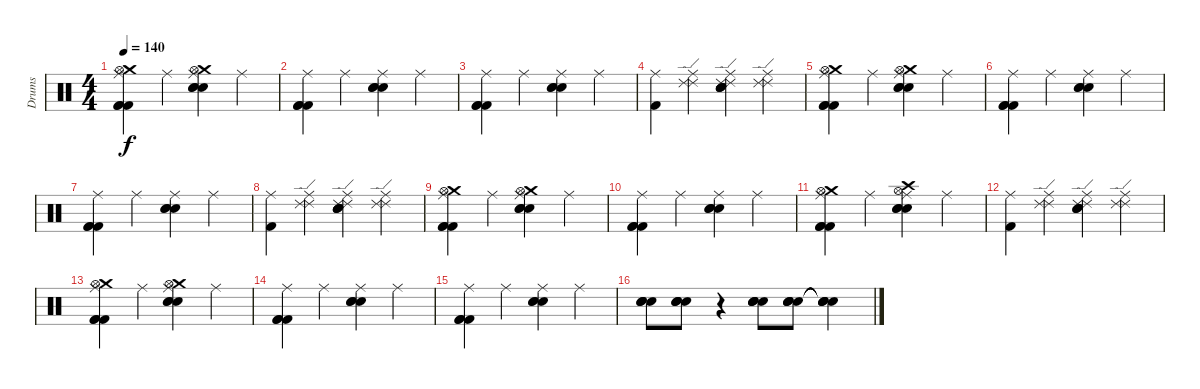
\track ("Drums" "Drums") {instrument percussion}
\staff {score}
\articulation defaults
\ts (4 4)
\tempo 140
\clef neutral
\ks c
("Ride (middle)" "Kick (hit) 2" "Kick (hit) 2" "Kick (hit) 2" "Crash medium (hit)" "Hi-Hat (open)").4{dy f} "Ride (middle)".4 ("Ride (middle)" "Electric Snare (hit)" "Electric Snare (hit)" "Electric Snare (hit)" "Crash medium (hit)" "Hi-Hat (open)").4 "Ride (middle)".4 |
("Ride (middle)" "Kick (hit) 2" "Kick (hit) 2" "Kick (hit) 2").4 "Ride (middle)".4 ("Ride (middle)" "Electric Snare (hit)" "Electric Snare (hit)" "Electric Snare (hit)").4 "Ride (middle)".4 |
("Ride (middle)" "Kick (hit) 2" "Kick (hit) 2" "Kick (hit) 2").4 "Ride (middle)".4 ("Ride (middle)" "Electric Snare (hit)" "Electric Snare (hit)" "Electric Snare (hit)").4 "Ride (middle)".4 |
("Ride (middle)" "Kick (hit) 2").4 ("Ride (middle)" "Ride (edge) 2" "Ride (edge) 2").4 ("Ride (middle)" "Electric Snare (hit)" "Electric Snare (hit)" "Electric Snare (hit)" "Ride (edge) 2" "Ride (edge) 2").4 ("Ride (middle)" "Ride (edge) 2" "Ride (edge) 2").4 |
("Ride (middle)" "Kick (hit) 2" "Kick (hit) 2" "Kick (hit) 2" "Crash medium (hit)" "Hi-Hat (open)").4 "Ride (middle)".4 ("Ride (middle)" "Electric Snare (hit)" "Electric Snare (hit)" "Electric Snare (hit)" "Crash medium (hit)" "Hi-Hat (open)").4 "Ride (middle)".4 |
("Ride (middle)" "Kick (hit) 2" "Kick (hit) 2" "Kick (hit) 2").4 "Ride (middle)".4 ("Ride (middle)" "Electric Snare (hit)" "Electric Snare (hit)" "Electric Snare (hit)").4 "Ride (middle)".4 |
("Ride (middle)" "Kick (hit) 2" "Kick (hit) 2" "Kick (hit) 2").4 "Ride (middle)".4 ("Ride (middle)" "Electric Snare (hit)" "Electric Snare (hit)" "Electric Snare (hit)").4 "Ride (middle)".4 |
("Ride (middle)" "Kick (hit) 2").4 ("Ride (middle)" "Ride (edge) 2" "Ride (edge) 2").4 ("Ride (middle)" "Electric Snare (hit)" "Electric Snare (hit)" "Electric Snare (hit)" "Ride (edge) 2" "Ride (edge) 2").4 ("Ride (middle)" "Ride (edge) 2" "Ride (edge) 2").4 |
("Ride (middle)" "Kick (hit) 2" "Kick (hit) 2" "Kick (hit) 2" "Crash medium (hit)" "Hi-Hat (open)").4 "Ride (middle)".4 ("Ride (middle)" "Electric Snare (hit)" "Electric Snare (hit)" "Electric Snare (hit)" "Crash medium (hit)" "Hi-Hat (open)").4 "Ride (middle)".4 |
("Ride (middle)" "Kick (hit) 2" "Kick (hit) 2" "Kick (hit) 2").4 "Ride (middle)".4 ("Ride (middle)" "Electric Snare (hit)" "Electric Snare (hit)" "Electric Snare (hit)").4 "Ride (middle)".4 |
("Ride (middle)" "Kick (hit) 2" "Kick (hit) 2" "Kick (hit) 2" "Crash medium (hit)" "Hi-Hat (open)").4 "Ride (middle)".4 ("Ride (middle)" "Electric Snare (hit)" "Electric Snare (hit)" "Electric Snare (hit)" "Crash high (hit)" "Hi-Hat (open)").4 "Ride (middle)".4 |
("Ride (middle)" "Kick (hit) 2").4 ("Ride (middle)" "Ride (edge) 2" "Ride (edge) 2").4 ("Ride (middle)" "Electric Snare (hit)" "Electric Snare (hit)" "Electric Snare (hit)" "Ride (edge) 2" "Ride (edge) 2").4 ("Ride (middle)" "Ride (edge) 2" "Ride (edge) 2").4 |
("Ride (middle)" "Kick (hit) 2" "Kick (hit) 2" "Kick (hit) 2" "Crash medium (hit)" "Hi-Hat (open)").4 "Ride (middle)".4 ("Ride (middle)" "Electric Snare (hit)" "Electric Snare (hit)" "Electric Snare (hit)" "Crash medium (hit)" "Hi-Hat (open)").4 "Ride (middle)".4 |
("Ride (middle)" "Kick (hit) 2" "Kick (hit) 2" "Kick (hit) 2").4 "Ride (middle)".4 ("Ride (middle)" "Electric Snare (hit)" "Electric Snare (hit)" "Electric Snare (hit)").4 "Ride (middle)".4 |
("Ride (middle)" "Kick (hit) 2" "Kick (hit) 2" "Kick (hit) 2").4 "Ride (middle)".4 ("Ride (middle)" "Electric Snare (hit)" "Electric Snare (hit)" "Electric Snare (hit)").4 "Ride (middle)".4 |
("Electric Snare (hit)" "Electric Snare (hit)" "Electric Snare (hit)" "Electric Snare (hit)").8 ("Electric Snare (hit)" "Electric Snare (hit)" "Electric Snare (hit)" "Electric Snare (hit)").8 r.4 ("Electric Snare (hit)" "Electric Snare (hit)" "Electric Snare (hit)" "Electric Snare (hit)").8 ("Electric Snare (hit)" "Electric Snare (hit)" "Electric Snare (hit)" "Electric Snare (hit)").8 ("Snare (hit)"{t} "Snare (hit)"{t} "Snare (hit)"{t} "Snare (hit)"{t}).4
